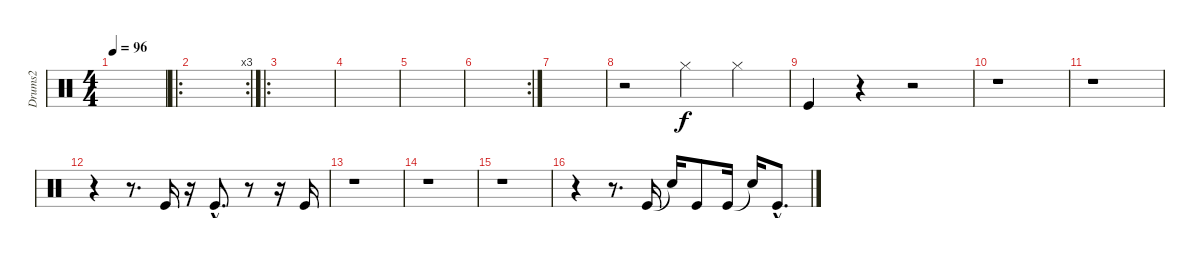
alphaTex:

\track ("Drums2" "Drums2") {instrument percussion}
\staff {score}
\articulation defaults
\ts (4 4)
\tempo 96
\clef neutral
\ks c
|
\ro
\rc 3
|
\ro
|
|
|
\rc 2
|
|
r.2 "Hi-Hat (closed)".4 "Hi-Hat (closed)".4 |
"Kick (hit)".4 r.4 r.2 |
r.1 |
r.1 |
r.4 r.8{d} "Kick (hit)".16 r.16 "Kick (hit)"{hac}.8{d} r.8 r.16 "Kick (hit)".16 |
r.1 |
r.1 |
r.1 |
r.4 r.8{d} "Kick (hit)".16 "Snare (hit)"{t}.16 "Kick (hit)".8 "Kick (hit)".16 "Snare (hit)"{t}.16 "Kick (hit)"{hac}.8{d}
